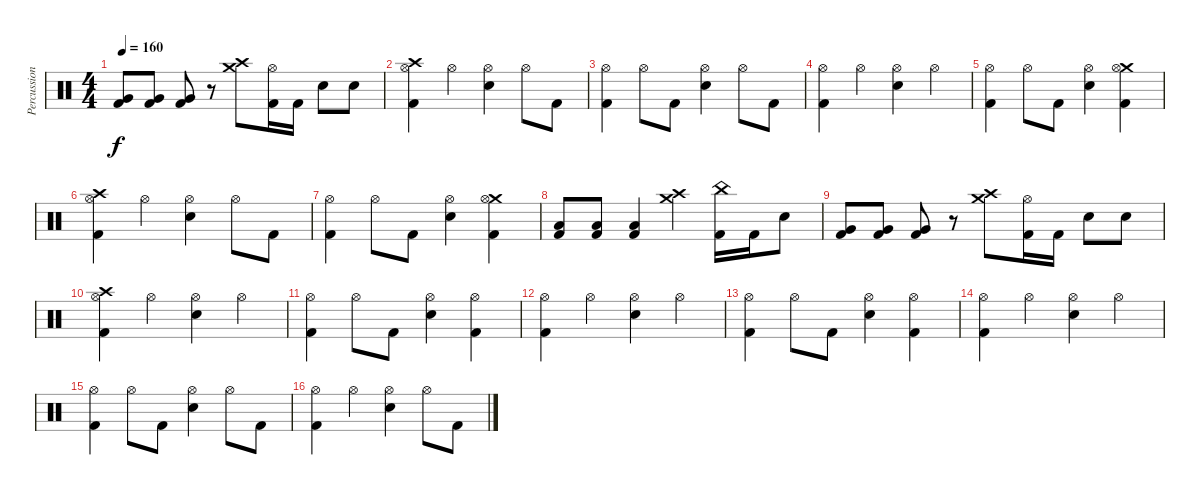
\track ("Percussion" "Percussion") {instrument percussion}
\staff {score}
\articulation defaults
\ts (4 4)
\tempo 160
\clef neutral
\ks c
("Very Low Tom (hit)" "Kick (hit) 2").8{dy f} ("Very Low Tom (hit)" "Kick (hit) 2").8 ("Very Low Tom (hit)" "Kick (hit) 2").8 r.8 ("Crash medium (hit)" "Crash high (hit)").8 ("Hi-Hat (open)" "Kick (hit) 2").16 "Kick (hit) 2".16 "Electric Snare (hit)".8 "Electric Snare (hit)".8 |
("Crash high (hit)" "Hi-Hat (open)" "Kick (hit) 2").4 "Hi-Hat (open)".4 ("Hi-Hat (open)" "Electric Snare (hit)").4 "Hi-Hat (open)".8 "Kick (hit) 2".8 |
("Hi-Hat (open)" "Kick (hit) 2").4 "Hi-Hat (open)".8 "Kick (hit) 2".8 ("Hi-Hat (open)" "Electric Snare (hit)").4 "Hi-Hat (open)".8 "Kick (hit) 2".8 |
("Hi-Hat (open)" "Kick (hit) 2").4 "Hi-Hat (open)".4 ("Hi-Hat (open)" "Electric Snare (hit)").4 "Hi-Hat (open)".4 |
("Hi-Hat (open)" "Kick (hit) 2").4 "Hi-Hat (open)".8 "Kick (hit) 2".8 ("Hi-Hat (open)" "Electric Snare (hit)").4 ("Crash medium (hit)" "Hi-Hat (open)" "Kick (hit) 2").4 |
("Crash high (hit)" "Hi-Hat (open)" "Kick (hit) 2").4 "Hi-Hat (open)".4 ("Hi-Hat (open)" "Electric Snare (hit)").4 "Hi-Hat (open)".8 "Kick (hit) 2".8 |
("Hi-Hat (open)" "Kick (hit) 2").4 "Hi-Hat (open)".8 "Kick (hit) 2".8 ("Hi-Hat (open)" "Electric Snare (hit)").4 ("Crash medium (hit)" "Hi-Hat (open)" "Kick (hit) 2").4 |
("Low Tom (hit)" "Kick (hit) 2").8 ("Low Tom (hit)" "Kick (hit) 2").8 ("Low Tom (hit)" "Kick (hit) 2").4 ("Crash medium (hit)" "Crash high (hit)").4 ("China (hit)" "Kick (hit) 2").16 "Kick (hit) 2".16 "Electric Snare (hit)".8 |
("Very Low Tom (hit)" "Kick (hit) 2").8 ("Very Low Tom (hit)" "Kick (hit) 2").8 ("Very Low Tom (hit)" "Kick (hit) 2").8 r.8 ("Crash medium (hit)" "Crash high (hit)").8 ("Hi-Hat (open)" "Kick (hit) 2").16 "Kick (hit) 2".16 "Electric Snare (hit)".8 "Electric Snare (hit)".8 |
("Crash high (hit)" "Hi-Hat (open)" "Kick (hit) 2").4 "Hi-Hat (open)".4 ("Hi-Hat (open)" "Electric Snare (hit)").4 "Hi-Hat (open)".4 |
("Hi-Hat (open)" "Kick (hit) 2").4 "Hi-Hat (open)".8 "Kick (hit) 2".8 ("Hi-Hat (open)" "Electric Snare (hit)").4 ("Hi-Hat (open)" "Kick (hit) 2").4 |
("Hi-Hat (open)" "Kick (hit) 2").4 "Hi-Hat (open)".4 ("Hi-Hat (open)" "Electric Snare (hit)").4 "Hi-Hat (open)".4 |
("Hi-Hat (open)" "Kick (hit) 2").4 "Hi-Hat (open)".8 "Kick (hit) 2".8 ("Hi-Hat (open)" "Electric Snare (hit)").4 ("Hi-Hat (open)" "Kick (hit) 2").4 |
("Hi-Hat (open)" "Kick (hit) 2").4 "Hi-Hat (open)".4 ("Hi-Hat (open)" "Electric Snare (hit)").4 "Hi-Hat (open)".4 |
("Hi-Hat (open)" "Kick (hit) 2").4 "Hi-Hat (open)".8 "Kick (hit) 2".8 ("Hi-Hat (open)" "Electric Snare (hit)").4 "Hi-Hat (open)".8 "Kick (hit) 2".8 |
("Hi-Hat (open)" "Kick (hit) 2").4 "Hi-Hat (open)".4 ("Hi-Hat (open)" "Electric Snare (hit)").4 "Hi-Hat (open)".8 "Kick (hit) 2".8
